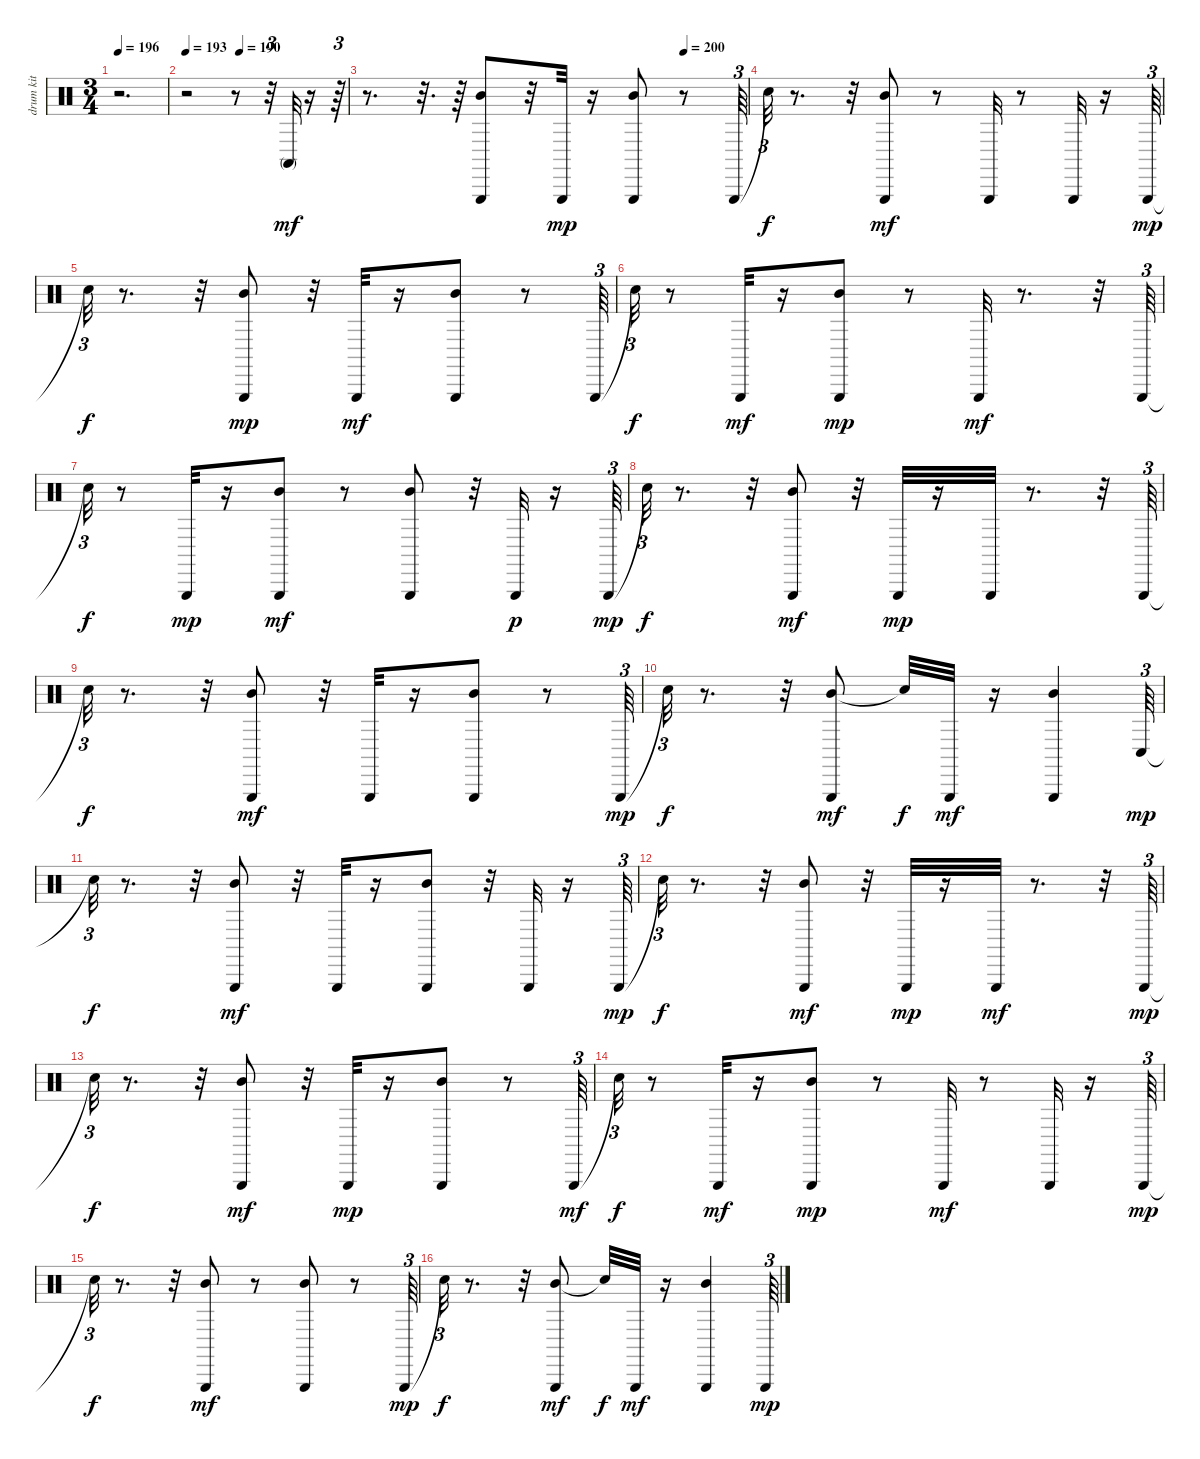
\track (" drum kit (hi-hat/cymbals)" " drum kit ") {instrument percussion}
\staff {score}
\articulation defaults
\ts (3 4)
\tempo 196
\clef neutral
\ks c
r.2{d dy mf} |
\tempo 193
\tempo (190 0.3333333333333333)
r.2 r.8 r.32{tu (3 2)} "Conga high (mute)".32 r.16 r.64{tu (3 2)} |
\tempo (200 0.8333333333333334)
r.8{d} r.32{d} r.64 ("Mid Tom (hit)" "Triangle (hit)").8 r.32 "Triangle (hit)".32{dy mp} r.16 ("Mid Tom (hit)" "Triangle (hit)").8 r.8 "Triangle (hit)".64{tu (3 2)} |
"Snare (hit)"{t}.32{tu (3 2) dy f} r.8{d} r.32 ("Triangle (hit)" "Mid Tom (hit)").8{dy mf} r.8 "Triangle (hit)".32 r.8 "Triangle (hit)".32 r.16 "Triangle (hit)".64{tu (3 2) dy mp} |
"Snare (hit)"{t}.32{tu (3 2) dy f} r.8{d} r.32 ("Mid Tom (hit)" "Triangle (hit)").8{dy mp} r.32 "Triangle (hit)".32{dy mf} r.16 ("Mid Tom (hit)" "Triangle (hit)").8 r.8 "Triangle (hit)".64{tu (3 2)} |
"Snare (hit)"{t}.32{tu (3 2) dy f} r.8 "Triangle (hit)".32{dy mf} r.16 ("Mid Tom (hit)" "Triangle (hit)").8{dy mp} r.8 "Triangle (hit)".32{dy mf} r.8{d} r.32 "Triangle (hit)".64{tu (3 2)} |
"Snare (hit)"{t}.32{tu (3 2) dy f} r.8 "Triangle (hit)".32{dy mp} r.16 ("Mid Tom (hit)" "Triangle (hit)").8{dy mf} r.8 ("Mid Tom (hit)" "Triangle (hit)").8 r.32 "Triangle (hit)".32{dy p} r.16 "Triangle (hit)".64{tu (3 2) dy mp} |
"Snare (hit)"{t}.32{tu (3 2) dy f} r.8{d} r.32 ("Mid Tom (hit)" "Triangle (hit)").8{dy mf} r.32 "Triangle (hit)".32{dy mp} r.16 "Triangle (hit)".32 r.8{d} r.32 "Triangle (hit)".64{tu (3 2)} |
"Snare (hit)"{t}.32{tu (3 2) dy f} r.8{d} r.32 ("Triangle (hit)" "Mid Tom (hit)").8{dy mf} r.32 "Triangle (hit)".32 r.16 ("Triangle (hit)" "Mid Tom (hit)").8 r.8 "Triangle (hit)".64{tu (3 2) dy mp} |
"Snare (hit)"{t}.32{tu (3 2) dy f} r.8{d} r.32 ("Mid Tom (hit)" "Triangle (hit)").8{dy mf} "Snare (hit)"{t}.32{dy f} "Triangle (hit)".32{dy mf} r.16 ("Mid Tom (hit)" "Triangle (hit)").4 "Conga low (hit)".64{tu (3 2) dy mp} |
"Snare (hit)"{t}.32{tu (3 2) dy f} r.8{d} r.32 ("Triangle (hit)" "Mid Tom (hit)").8{dy mf} r.32 "Triangle (hit)".32 r.16 ("Mid Tom (hit)" "Triangle (hit)").8 r.32 "Triangle (hit)".32 r.16 "Triangle (hit)".64{tu (3 2) dy mp} |
"Snare (hit)"{t}.32{tu (3 2) dy f} r.8{d} r.32 ("Mid Tom (hit)" "Triangle (hit)").8{dy mf} r.32 "Triangle (hit)".32{dy mp} r.16 "Triangle (hit)".32{dy mf} r.8{d} r.32 "Triangle (hit)".64{tu (3 2) dy mp} |
"Snare (hit)"{t}.32{tu (3 2) dy f} r.8{d} r.32 ("Mid Tom (hit)" "Triangle (hit)").8{dy mf} r.32 "Triangle (hit)".32{dy mp} r.16 ("Mid Tom (hit)" "Triangle (hit)").8 r.8 "Triangle (hit)".64{tu (3 2) dy mf} |
"Snare (hit)"{t}.32{tu (3 2) dy f} r.8 "Triangle (hit)".32{dy mf} r.16 ("Mid Tom (hit)" "Triangle (hit)").8{dy mp} r.8 "Triangle (hit)".32{dy mf} r.8 "Triangle (hit)".32 r.16 "Triangle (hit)".64{tu (3 2) dy mp} |
"Snare (hit)"{t}.32{tu (3 2) dy f} r.8{d} r.32 ("Mid Tom (hit)" "Triangle (hit)").8{dy mf} r.8 ("Mid Tom (hit)" "Triangle (hit)").8 r.8 "Triangle (hit)".64{tu (3 2) dy mp} |
"Snare (hit)"{t}.32{tu (3 2) dy f} r.8{d} r.32 ("Mid Tom (hit)" "Triangle (hit)").8{dy mf} "Snare (hit)"{t}.32{dy f} "Triangle (hit)".32{dy mf} r.16 ("Mid Tom (hit)" "Triangle (hit)").4 "Triangle (hit)".64{tu (3 2) dy mp}
